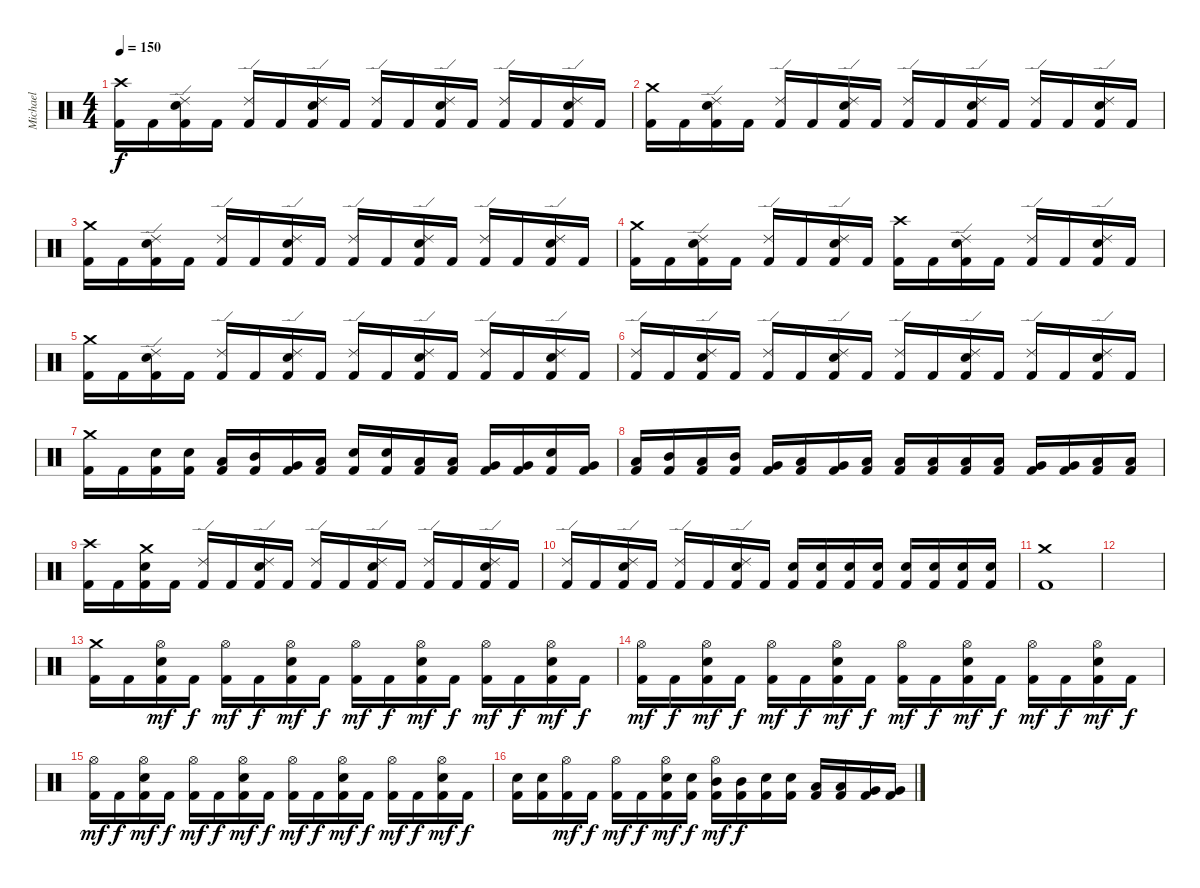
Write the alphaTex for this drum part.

\track ("Michael" "Michael") {instrument percussion}
\staff {score}
\articulation defaults
\ts (4 4)
\tempo 150
\clef neutral
\ks c
("Crash high (hit)" "Kick (hit) 2").16{dy f} "Kick (hit) 2".16 ("Ride (edge) 2" "Electric Snare (hit)" "Kick (hit) 2").16 "Kick (hit) 2".16 ("Ride (edge) 2" "Kick (hit) 2").16 "Kick (hit) 2".16 ("Ride (edge) 2" "Electric Snare (hit)" "Kick (hit) 2").16 "Kick (hit) 2".16 ("Ride (edge) 2" "Kick (hit) 2").16 "Kick (hit) 2".16 ("Ride (edge) 2" "Electric Snare (hit)" "Kick (hit) 2").16 "Kick (hit) 2".16 ("Ride (edge) 2" "Kick (hit) 2").16 "Kick (hit) 2".16 ("Ride (edge) 2" "Electric Snare (hit)" "Kick (hit) 2").16 "Kick (hit) 2".16 |
("Crash medium (hit)" "Kick (hit) 2").16 "Kick (hit) 2".16 ("Ride (edge) 2" "Electric Snare (hit)" "Kick (hit) 2").16 "Kick (hit) 2".16 ("Ride (edge) 2" "Kick (hit) 2").16 "Kick (hit) 2".16 ("Ride (edge) 2" "Electric Snare (hit)" "Kick (hit) 2").16 "Kick (hit) 2".16 ("Ride (edge) 2" "Kick (hit) 2").16 "Kick (hit) 2".16 ("Ride (edge) 2" "Electric Snare (hit)" "Kick (hit) 2").16 "Kick (hit) 2".16 ("Ride (edge) 2" "Kick (hit) 2").16 "Kick (hit) 2".16 ("Ride (edge) 2" "Electric Snare (hit)" "Kick (hit) 2").16 "Kick (hit) 2".16 |
("Crash medium (hit)" "Kick (hit) 2").16 "Kick (hit) 2".16 ("Ride (edge) 2" "Electric Snare (hit)" "Kick (hit) 2").16 "Kick (hit) 2".16 ("Ride (edge) 2" "Kick (hit) 2").16 "Kick (hit) 2".16 ("Ride (edge) 2" "Electric Snare (hit)" "Kick (hit) 2").16 "Kick (hit) 2".16 ("Ride (edge) 2" "Kick (hit) 2").16 "Kick (hit) 2".16 ("Ride (edge) 2" "Electric Snare (hit)" "Kick (hit) 2").16 "Kick (hit) 2".16 ("Ride (edge) 2" "Kick (hit) 2").16 "Kick (hit) 2".16 ("Ride (edge) 2" "Electric Snare (hit)" "Kick (hit) 2").16 "Kick (hit) 2".16 |
("Crash medium (hit)" "Kick (hit) 2").16 "Kick (hit) 2".16 ("Ride (edge) 2" "Electric Snare (hit)" "Kick (hit) 2").16 "Kick (hit) 2".16 ("Ride (edge) 2" "Kick (hit) 2").16 "Kick (hit) 2".16 ("Ride (edge) 2" "Electric Snare (hit)" "Kick (hit) 2").16 "Kick (hit) 2".16 ("Crash high (hit)" "Kick (hit) 2").16 "Kick (hit) 2".16 ("Ride (edge) 2" "Electric Snare (hit)" "Kick (hit) 2").16 "Kick (hit) 2".16 ("Ride (edge) 2" "Kick (hit) 2").16 "Kick (hit) 2".16 ("Ride (edge) 2" "Electric Snare (hit)" "Kick (hit) 2").16 "Kick (hit) 2".16 |
("Crash medium (hit)" "Kick (hit) 2").16 "Kick (hit) 2".16 ("Ride (edge) 2" "Electric Snare (hit)" "Kick (hit) 2").16 "Kick (hit) 2".16 ("Ride (edge) 2" "Kick (hit) 2").16 "Kick (hit) 2".16 ("Ride (edge) 2" "Electric Snare (hit)" "Kick (hit) 2").16 "Kick (hit) 2".16 ("Ride (edge) 2" "Kick (hit) 2").16 "Kick (hit) 2".16 ("Ride (edge) 2" "Electric Snare (hit)" "Kick (hit) 2").16 "Kick (hit) 2".16 ("Ride (edge) 2" "Kick (hit) 2").16 "Kick (hit) 2".16 ("Ride (edge) 2" "Electric Snare (hit)" "Kick (hit) 2").16 "Kick (hit) 2".16 |
("Ride (edge) 2" "Kick (hit) 2").16 "Kick (hit) 2".16 ("Ride (edge) 2" "Electric Snare (hit)" "Kick (hit) 2").16 "Kick (hit) 2".16 ("Ride (edge) 2" "Kick (hit) 2").16 "Kick (hit) 2".16 ("Ride (edge) 2" "Electric Snare (hit)" "Kick (hit) 2").16 "Kick (hit) 2".16 ("Ride (edge) 2" "Kick (hit) 2").16 "Kick (hit) 2".16 ("Ride (edge) 2" "Electric Snare (hit)" "Kick (hit) 2").16 "Kick (hit) 2".16 ("Ride (edge) 2" "Kick (hit) 2").16 "Kick (hit) 2".16 ("Ride (edge) 2" "Electric Snare (hit)" "Kick (hit) 2").16 "Kick (hit) 2".16 |
("Crash medium (hit)" "Kick (hit) 2").16 "Kick (hit) 2".16 ("Electric Snare (hit)" "Kick (hit) 2").16 ("Electric Snare (hit)" "Kick (hit) 2").16 ("Low Tom (hit)" "Kick (hit) 2").16 ("Mid Tom (hit)" "Kick (hit) 2").16 ("Very Low Tom (hit)" "Kick (hit) 2").16 ("Low Tom (hit)" "Kick (hit) 2").16 ("Electric Snare (hit)" "Kick (hit) 2").16 ("Electric Snare (hit)" "Kick (hit) 2").16 ("Low Tom (hit)" "Kick (hit) 2").16 ("Low Tom (hit)" "Kick (hit) 2").16 ("Very Low Tom (hit)" "Kick (hit) 2").16 ("Very Low Tom (hit)" "Kick (hit) 2").16 ("Electric Snare (hit)" "Kick (hit) 2").16 ("Very Low Tom (hit)" "Kick (hit) 2").16 |
("Low Tom (hit)" "Kick (hit) 2").16 ("Mid Tom (hit)" "Kick (hit) 2").16 ("Low Tom (hit)" "Kick (hit) 2").16 ("Mid Tom (hit)" "Kick (hit) 2").16 ("Very Low Tom (hit)" "Kick (hit) 2").16 ("Low Tom (hit)" "Kick (hit) 2").16 ("Very Low Tom (hit)" "Kick (hit) 2").16 ("Low Tom (hit)" "Kick (hit) 2").16 ("Low Tom (hit)" "Kick (hit) 2").16 ("Low Tom (hit)" "Kick (hit) 2").16 ("Low Tom (hit)" "Kick (hit) 2").16 ("Low Tom (hit)" "Kick (hit) 2").16 ("Very Low Tom (hit)" "Kick (hit) 2").16 ("Very Low Tom (hit)" "Kick (hit) 2").16 ("Low Floor Tom (hit)" "Kick (hit) 2").16 ("Low Floor Tom (hit)" "Kick (hit) 2").16 |
("Crash high (hit)" "Kick (hit) 2").16 "Kick (hit) 2".16 ("Crash medium (hit)" "Electric Snare (hit)" "Kick (hit) 2").16 "Kick (hit) 2".16 ("Ride (edge) 2" "Kick (hit) 2").16 "Kick (hit) 2".16 ("Ride (edge) 2" "Electric Snare (hit)" "Kick (hit) 2").16 "Kick (hit) 2".16 ("Ride (edge) 2" "Kick (hit) 2").16 "Kick (hit) 2".16 ("Ride (edge) 2" "Electric Snare (hit)" "Kick (hit) 2").16 "Kick (hit) 2".16 ("Ride (edge) 2" "Kick (hit) 2").16 "Kick (hit) 2".16 ("Ride (edge) 2" "Electric Snare (hit)" "Kick (hit) 2").16 "Kick (hit) 2".16 |
("Ride (edge) 2" "Kick (hit) 2").16 "Kick (hit) 2".16 ("Ride (edge) 2" "Electric Snare (hit)" "Kick (hit) 2").16 "Kick (hit) 2".16 ("Ride (edge) 2" "Kick (hit) 2").16 "Kick (hit) 2".16 ("Ride (edge) 2" "Electric Snare (hit)" "Kick (hit) 2").16 "Kick (hit) 2".16 ("Electric Snare (hit)" "Kick (hit) 2").16 ("Electric Snare (hit)" "Kick (hit) 2").16 ("Electric Snare (hit)" "Kick (hit) 2").16 ("Electric Snare (hit)" "Kick (hit) 2").16 ("Electric Snare (hit)" "Kick (hit) 2").16 ("Electric Snare (hit)" "Kick (hit) 2").16 ("Electric Snare (hit)" "Kick (hit) 2").16 ("Electric Snare (hit)" "Kick (hit) 2").16 |
("Crash medium (hit)" "Kick (hit) 2").1 |
|
("Crash medium (hit)" "Kick (hit) 2").16 "Kick (hit) 2".16 ("Hi-Hat (open)" "Electric Snare (hit)" "Kick (hit) 2").16{dy mf} "Kick (hit) 2".16{dy f} ("Hi-Hat (open)" "Kick (hit) 2").16{dy mf} "Kick (hit) 2".16{dy f} ("Hi-Hat (open)" "Electric Snare (hit)" "Kick (hit) 2").16{dy mf} "Kick (hit) 2".16{dy f} ("Hi-Hat (open)" "Kick (hit) 2").16{dy mf} "Kick (hit) 2".16{dy f} ("Hi-Hat (open)" "Electric Snare (hit)" "Kick (hit) 2").16{dy mf} "Kick (hit) 2".16{dy f} ("Hi-Hat (open)" "Kick (hit) 2").16{dy mf} "Kick (hit) 2".16{dy f} ("Hi-Hat (open)" "Electric Snare (hit)" "Kick (hit) 2").16{dy mf} "Kick (hit) 2".16{dy f} |
("Hi-Hat (open)" "Kick (hit) 2").16{dy mf} "Kick (hit) 2".16{dy f} ("Hi-Hat (open)" "Electric Snare (hit)" "Kick (hit) 2").16{dy mf} "Kick (hit) 2".16{dy f} ("Hi-Hat (open)" "Kick (hit) 2").16{dy mf} "Kick (hit) 2".16{dy f} ("Hi-Hat (open)" "Electric Snare (hit)" "Kick (hit) 2").16{dy mf} "Kick (hit) 2".16{dy f} ("Hi-Hat (open)" "Kick (hit) 2").16{dy mf} "Kick (hit) 2".16{dy f} ("Hi-Hat (open)" "Electric Snare (hit)" "Kick (hit) 2").16{dy mf} "Kick (hit) 2".16{dy f} ("Hi-Hat (open)" "Kick (hit) 2").16{dy mf} "Kick (hit) 2".16{dy f} ("Hi-Hat (open)" "Electric Snare (hit)" "Kick (hit) 2").16{dy mf} "Kick (hit) 2".16{dy f} |
("Hi-Hat (open)" "Kick (hit) 2").16{dy mf} "Kick (hit) 2".16{dy f} ("Hi-Hat (open)" "Electric Snare (hit)" "Kick (hit) 2").16{dy mf} "Kick (hit) 2".16{dy f} ("Hi-Hat (open)" "Kick (hit) 2").16{dy mf} "Kick (hit) 2".16{dy f} ("Hi-Hat (open)" "Electric Snare (hit)" "Kick (hit) 2").16{dy mf} "Kick (hit) 2".16{dy f} ("Hi-Hat (open)" "Kick (hit) 2").16{dy mf} "Kick (hit) 2".16{dy f} ("Hi-Hat (open)" "Electric Snare (hit)" "Kick (hit) 2").16{dy mf} "Kick (hit) 2".16{dy f} ("Hi-Hat (open)" "Kick (hit) 2").16{dy mf} "Kick (hit) 2".16{dy f} ("Hi-Hat (open)" "Electric Snare (hit)" "Kick (hit) 2").16{dy mf} "Kick (hit) 2".16{dy f} |
("Electric Snare (hit)" "Kick (hit) 2").16 ("Electric Snare (hit)" "Kick (hit) 2").16 ("Hi-Hat (open)" "Kick (hit) 2").16{dy mf} "Kick (hit) 2".16{dy f} ("Hi-Hat (open)" "Kick (hit) 2").16{dy mf} "Kick (hit) 2".16{dy f} ("Hi-Hat (open)" "Electric Snare (hit)" "Kick (hit) 2").16{dy mf} ("Electric Snare (hit)" "Kick (hit) 2").16{dy f} ("Hi-Hat (open)" "Mid Tom (hit)" "Kick (hit) 2").16{dy mf} ("Mid Tom (hit)" "Kick (hit) 2").16{dy f} ("Electric Snare (hit)" "Kick (hit) 2").16 ("Electric Snare (hit)" "Kick (hit) 2").16 ("Low Tom (hit)" "Kick (hit) 2").16 ("Low Tom (hit)" "Kick (hit) 2").16 ("Very Low Tom (hit)" "Kick (hit) 2").16 ("Very Low Tom (hit)" "Kick (hit) 2").16
